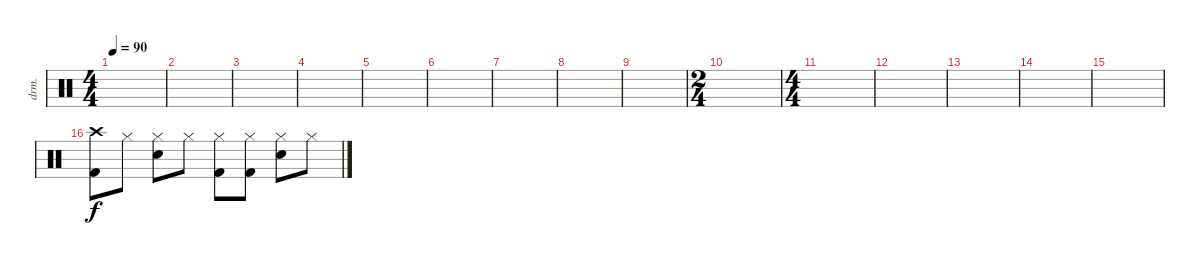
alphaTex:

\defaultSystemsLayout 4
\bracketExtendMode groupsimilarinstruments
\useSystemSignSeparator
\otherSystemsTrackNameOrientation horizontal
\chordDiagramsInScore
\track ("Drumkit" "drm.") {instrument percussion}
\staff {score}
\articulation defaults
\ts (4 4)
\tempo 90
\clef neutral
\ks c
|
|
|
|
|
|
|
|
|
\ts (2 4)
\beaming (8 2 2)
|
\ts (4 4)
\beaming (8 2 2 2 2)
|
|
|
|
|
("Crash high (hit)" "Kick (hit) 2").8{beam Down} "Hi-Hat (closed)".8{beam Down} ("Hi-Hat (closed)" "Snare (hit) 2").8{beam Down} "Hi-Hat (closed)".8{beam Down} ("Hi-Hat (closed)" "Kick (hit) 2").8{beam Down} ("Hi-Hat (closed)" "Kick (hit) 2").8{beam Down} ("Hi-Hat (closed)" "Snare (hit) 2").8{beam Down} "Hi-Hat (closed)".8{beam Down}
